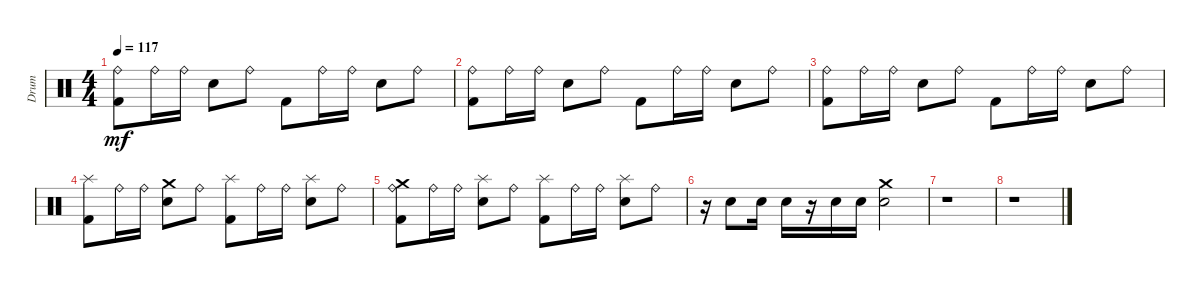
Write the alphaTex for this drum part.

\track ("Drum" "Drum") {instrument percussion}
\staff {score}
\articulation defaults
\ts (4 4)
\tempo 117
\clef neutral
\ks c
("Kick (hit) 2" "Ride (bell)").8{dy mf} "Ride (bell)".16 "Ride (bell)".16 "Snare (hit) 2".8 "Ride (bell)".8 "Kick (hit) 2".8 "Ride (bell)".16 "Ride (bell)".16 "Snare (hit) 2".8 "Ride (bell)".8 |
("Ride (bell)" "Kick (hit) 2").8 "Ride (bell)".16 "Ride (bell)".16 "Snare (hit) 2".8 "Ride (bell)".8 "Kick (hit) 2".8 "Ride (bell)".16 "Ride (bell)".16 "Snare (hit) 2".8 "Ride (bell)".8 |
("Ride (bell)" "Kick (hit) 2").8 "Ride (bell)".16 "Ride (bell)".16 "Snare (hit) 2".8 "Ride (bell)".8 "Kick (hit) 2".8 "Ride (bell)".16 "Ride (bell)".16 "Snare (hit) 2".8 "Ride (bell)".8 |
("Splash (hit)" "Kick (hit) 2").8 "Ride (bell)".16 "Ride (bell)".16 ("Crash medium (hit)" "Snare (hit) 2").8 "Ride (bell)".8 ("Splash (hit)" "Kick (hit) 2").8 "Ride (bell)".16 "Ride (bell)".16 ("Snare (hit) 2" "Splash (hit)").8 "Ride (bell)".8 |
("Crash medium (hit)" "Kick (hit) 2" "Ride (bell)").8 "Ride (bell)".16 "Ride (bell)".16 ("Splash (hit)" "Snare (hit) 2").8 "Ride (bell)".8 ("Kick (hit) 2" "Splash (hit)").8 "Ride (bell)".16 "Ride (bell)".16 ("Snare (hit) 2" "Splash (hit)").8 "Ride (bell)".8 |
r.16 "Snare (hit) 2".8 "Snare (hit) 2".16 "Snare (hit) 2".16 r.16 "Electric Snare (hit)".16 "Electric Snare (hit)".16 ("Crash medium (hit)" "Electric Snare (hit)").2 |
r.1 |
r.1
